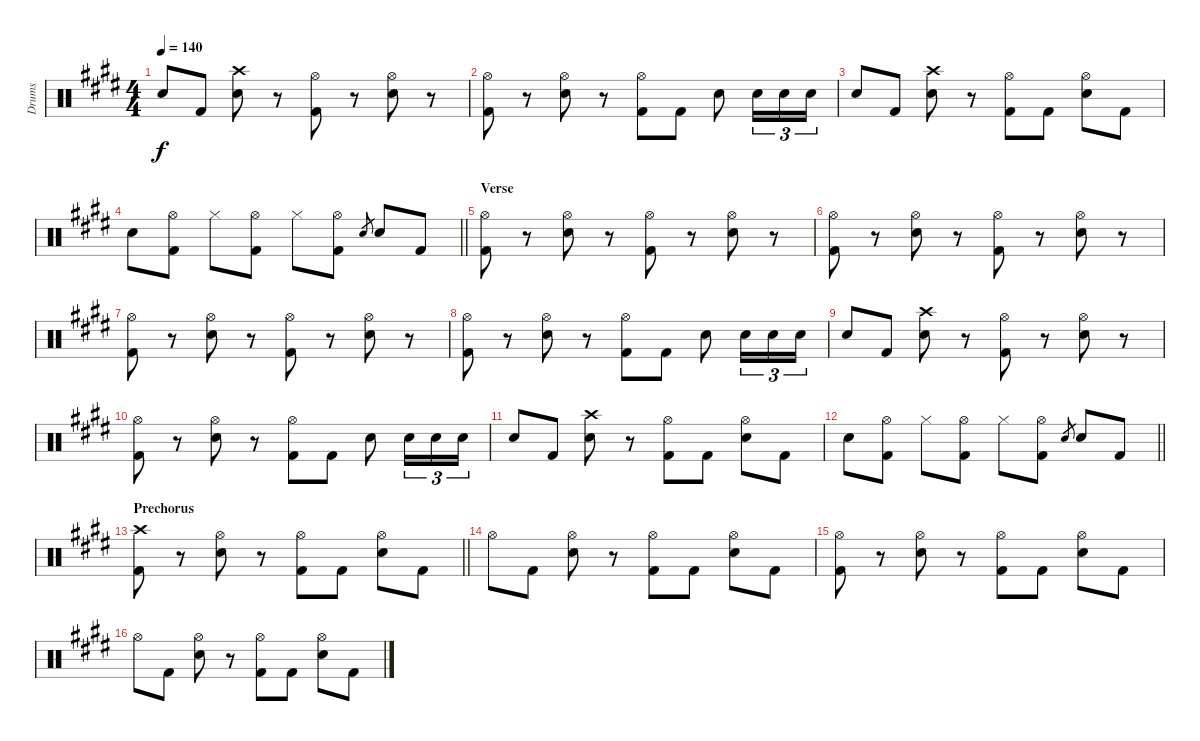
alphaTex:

\track ("Drums" "Drums") {instrument percussion}
\staff {score}
\articulation defaults
\ts (4 4)
\tempo 140
\clef neutral
\ks e "Electric Snare (hit)".8{dy f} "Kick (hit) 2".8
("Crash high (hit)" "Electric Snare (hit)").8 r.8 ("Hi-Hat (open)" "Kick (hit) 2").8 r.8 ("Hi-Hat (open)" "Electric Snare (hit)").8 r.8 |
\ks c#minor
("Hi-Hat (open)" "Kick (hit) 2").8 r.8 ("Hi-Hat (open)" "Electric Snare (hit)").8 r.8 ("Hi-Hat (open)" "Kick (hit) 2").8 "Kick (hit) 2".8 "Electric Snare (hit)".8 "Electric Snare (hit)".16{tu (3 2)} "Electric Snare (hit)".16{tu (3 2)} "Electric Snare (hit)".16{tu (3 2)} |
\ks e "Electric Snare (hit)".8 "Kick (hit) 2".8
("Crash high (hit)" "Electric Snare (hit)").8 r.8 ("Hi-Hat (open)" "Kick (hit) 2").8 "Kick (hit) 2".8 ("Hi-Hat (open)" "Electric Snare (hit)").8 "Kick (hit) 2".8 |
\barLineRight lightlight
\ks c#minor "Electric Snare (hit)".8
("Hi-Hat (open)" "Kick (hit) 2").8 "Hi-Hat (closed)".8 ("Hi-Hat (open)" "Kick (hit) 2").8 "Hi-Hat (closed)".8 ("Hi-Hat (open)" "Kick (hit) 2").8 "Electric Snare (hit)".8{gr} "Electric Snare (hit)".8 "Kick (hit) 2".8 |
\section ("" "Verse")
("Hi-Hat (open)" "Kick (hit) 2").8 r.8 ("Hi-Hat (open)" "Electric Snare (hit)").8 r.8 ("Hi-Hat (open)" "Kick (hit) 2").8 r.8 ("Hi-Hat (open)" "Electric Snare (hit)").8 r.8 |
("Hi-Hat (open)" "Kick (hit) 2").8 r.8 ("Hi-Hat (open)" "Electric Snare (hit)").8 r.8 ("Hi-Hat (open)" "Kick (hit) 2").8 r.8 ("Hi-Hat (open)" "Electric Snare (hit)").8 r.8 |
("Hi-Hat (open)" "Kick (hit) 2").8 r.8 ("Hi-Hat (open)" "Electric Snare (hit)").8 r.8 ("Hi-Hat (open)" "Kick (hit) 2").8 r.8 ("Hi-Hat (open)" "Electric Snare (hit)").8 r.8 |
("Hi-Hat (open)" "Kick (hit) 2").8 r.8 ("Hi-Hat (open)" "Electric Snare (hit)").8 r.8 ("Hi-Hat (open)" "Kick (hit) 2").8 "Kick (hit) 2".8 "Electric Snare (hit)".8 "Electric Snare (hit)".16{tu (3 2)} "Electric Snare (hit)".16{tu (3 2)} "Electric Snare (hit)".16{tu (3 2)} |
\ks e "Electric Snare (hit)".8 "Kick (hit) 2".8
("Crash high (hit)" "Electric Snare (hit)").8 r.8 ("Hi-Hat (open)" "Kick (hit) 2").8 r.8 ("Hi-Hat (open)" "Electric Snare (hit)").8 r.8 |
\ks c#minor
("Hi-Hat (open)" "Kick (hit) 2").8 r.8 ("Hi-Hat (open)" "Electric Snare (hit)").8 r.8 ("Hi-Hat (open)" "Kick (hit) 2").8 "Kick (hit) 2".8 "Electric Snare (hit)".8 "Electric Snare (hit)".16{tu (3 2)} "Electric Snare (hit)".16{tu (3 2)} "Electric Snare (hit)".16{tu (3 2)} |
\ks e "Electric Snare (hit)".8 "Kick (hit) 2".8
("Crash high (hit)" "Electric Snare (hit)").8 r.8 ("Hi-Hat (open)" "Kick (hit) 2").8 "Kick (hit) 2".8 ("Hi-Hat (open)" "Electric Snare (hit)").8 "Kick (hit) 2".8 |
\barLineRight lightlight
\ks c#minor "Electric Snare (hit)".8
("Hi-Hat (open)" "Kick (hit) 2").8 "Hi-Hat (closed)".8 ("Hi-Hat (open)" "Kick (hit) 2").8 "Hi-Hat (closed)".8 ("Hi-Hat (open)" "Kick (hit) 2").8 "Electric Snare (hit)".8{gr} "Electric Snare (hit)".8 "Kick (hit) 2".8 |
\section ("" "Prechorus")
\barLineRight lightlight
("Crash high (hit)" "Kick (hit) 2").8 r.8 ("Hi-Hat (open)" "Electric Snare (hit)").8 r.8 ("Hi-Hat (open)" "Kick (hit) 2").8 "Kick (hit) 2".8 ("Hi-Hat (open)" "Electric Snare (hit)").8 "Kick (hit) 2".8 |
"Hi-Hat (open)".8 "Kick (hit) 2".8 ("Hi-Hat (open)" "Electric Snare (hit)").8 r.8 ("Hi-Hat (open)" "Kick (hit) 2").8 "Kick (hit) 2".8 ("Hi-Hat (open)" "Electric Snare (hit)").8 "Kick (hit) 2".8 |
("Hi-Hat (open)" "Kick (hit) 2").8 r.8 ("Hi-Hat (open)" "Electric Snare (hit)").8 r.8 ("Hi-Hat (open)" "Kick (hit) 2").8 "Kick (hit) 2".8 ("Hi-Hat (open)" "Electric Snare (hit)").8 "Kick (hit) 2".8 |
"Hi-Hat (open)".8 "Kick (hit) 2".8 ("Hi-Hat (open)" "Electric Snare (hit)").8 r.8 ("Hi-Hat (open)" "Kick (hit) 2").8 "Kick (hit) 2".8 ("Hi-Hat (open)" "Electric Snare (hit)").8 "Kick (hit) 2".8
